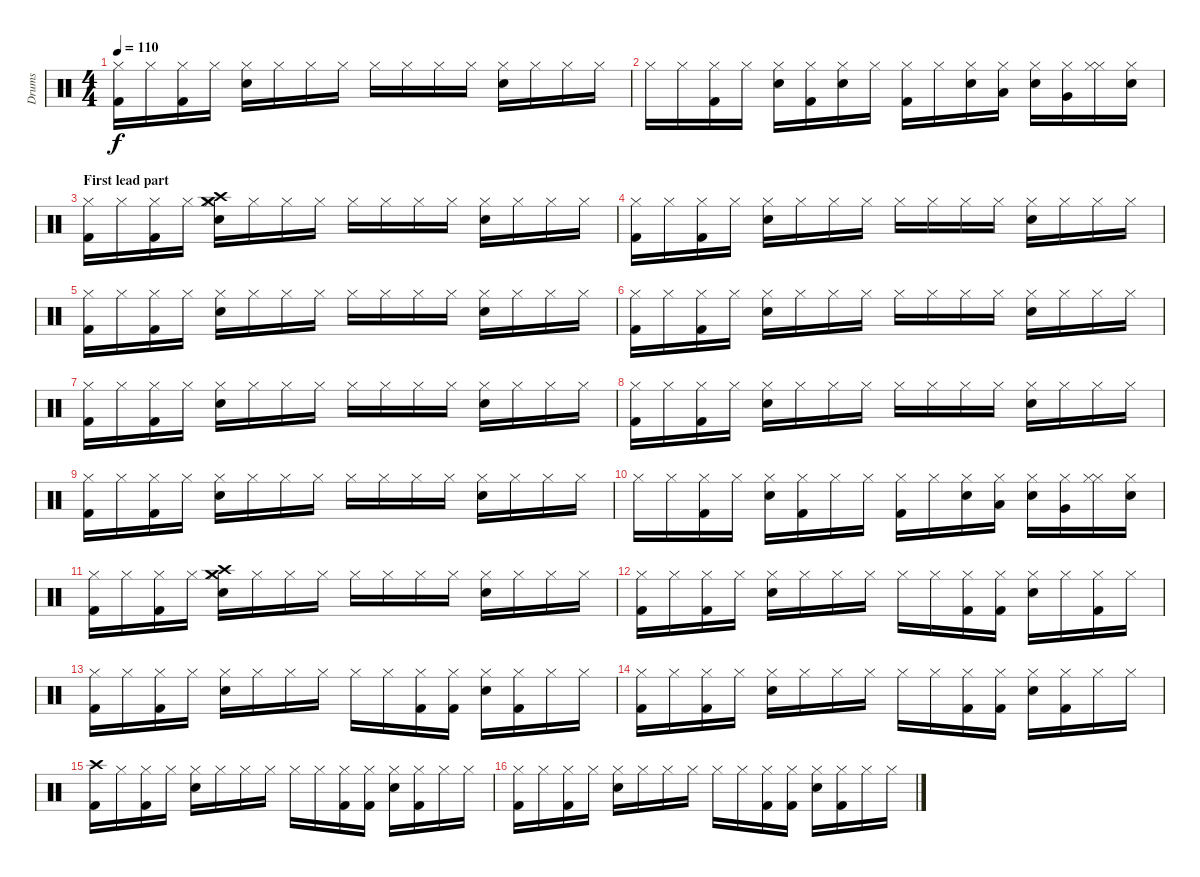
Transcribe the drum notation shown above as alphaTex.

\track ("Drums" "Drums") {instrument percussion}
\staff {score}
\articulation defaults
\ts (4 4)
\tempo 110
\clef neutral
\ks c
("Hi-Hat (closed)" "Kick (hit) 2").16{dy f} "Hi-Hat (closed)".16 ("Hi-Hat (closed)" "Kick (hit) 2").16 "Hi-Hat (closed)".16 ("Hi-Hat (closed)" "Snare (hit) 2").16 "Hi-Hat (closed)".16 "Hi-Hat (closed)".16 "Hi-Hat (closed)".16 "Hi-Hat (closed)".16 "Hi-Hat (closed)".16 "Hi-Hat (closed)".16 "Hi-Hat (closed)".16 ("Hi-Hat (closed)" "Snare (hit) 2").16 "Hi-Hat (closed)".16 "Hi-Hat (closed)".16 "Hi-Hat (closed)".16 |
"Hi-Hat (closed)".16 "Hi-Hat (closed)".16 ("Hi-Hat (closed)" "Kick (hit) 2").16 "Hi-Hat (closed)".16 ("Hi-Hat (closed)" "Snare (hit) 2").16 ("Hi-Hat (closed)" "Kick (hit) 2").16 ("Hi-Hat (closed)" "Snare (hit) 2").16 "Hi-Hat (closed)".16 ("Hi-Hat (closed)" "Kick (hit) 2").16 "Hi-Hat (closed)".16 ("Hi-Hat (closed)" "Snare (hit) 2").16 ("Hi-Hat (closed)" "Low Tom (hit)").16 ("Hi-Hat (closed)" "Snare (hit) 2").16 ("Hi-Hat (closed)" "Very Low Tom (hit)").16 ("Hi-Hat (closed)" "Hi-Hat (closed)").16 ("Hi-Hat (closed)" "Snare (hit) 2").16 |
\section ("" "First lead part")
("Hi-Hat (closed)" "Kick (hit) 2").16 "Hi-Hat (closed)".16 ("Hi-Hat (closed)" "Kick (hit) 2").16 "Hi-Hat (closed)".16 ("Hi-Hat (closed)" "Crash medium (hit)" "Crash high (hit)" "Snare (hit) 2").16 "Hi-Hat (closed)".16 "Hi-Hat (closed)".16 "Hi-Hat (closed)".16 "Hi-Hat (closed)".16 "Hi-Hat (closed)".16 "Hi-Hat (closed)".16 "Hi-Hat (closed)".16 ("Hi-Hat (closed)" "Snare (hit) 2").16 "Hi-Hat (closed)".16 "Hi-Hat (closed)".16 "Hi-Hat (closed)".16 |
("Hi-Hat (closed)" "Kick (hit) 2").16 "Hi-Hat (closed)".16 ("Hi-Hat (closed)" "Kick (hit) 2").16 "Hi-Hat (closed)".16 ("Hi-Hat (closed)" "Snare (hit) 2").16 "Hi-Hat (closed)".16 "Hi-Hat (closed)".16 "Hi-Hat (closed)".16 "Hi-Hat (closed)".16 "Hi-Hat (closed)".16 "Hi-Hat (closed)".16 "Hi-Hat (closed)".16 ("Hi-Hat (closed)" "Snare (hit) 2").16 "Hi-Hat (closed)".16 "Hi-Hat (closed)".16 "Hi-Hat (closed)".16 |
("Hi-Hat (closed)" "Kick (hit) 2").16 "Hi-Hat (closed)".16 ("Hi-Hat (closed)" "Kick (hit) 2").16 "Hi-Hat (closed)".16 ("Hi-Hat (closed)" "Snare (hit) 2").16 "Hi-Hat (closed)".16 "Hi-Hat (closed)".16 "Hi-Hat (closed)".16 "Hi-Hat (closed)".16 "Hi-Hat (closed)".16 "Hi-Hat (closed)".16 "Hi-Hat (closed)".16 ("Hi-Hat (closed)" "Snare (hit) 2").16 "Hi-Hat (closed)".16 "Hi-Hat (closed)".16 "Hi-Hat (closed)".16 |
("Hi-Hat (closed)" "Kick (hit) 2").16 "Hi-Hat (closed)".16 ("Hi-Hat (closed)" "Kick (hit) 2").16 "Hi-Hat (closed)".16 ("Hi-Hat (closed)" "Snare (hit) 2").16 "Hi-Hat (closed)".16 "Hi-Hat (closed)".16 "Hi-Hat (closed)".16 "Hi-Hat (closed)".16 "Hi-Hat (closed)".16 "Hi-Hat (closed)".16 "Hi-Hat (closed)".16 ("Hi-Hat (closed)" "Snare (hit) 2").16 "Hi-Hat (closed)".16 "Hi-Hat (closed)".16 "Hi-Hat (closed)".16 |
("Hi-Hat (closed)" "Kick (hit) 2").16 "Hi-Hat (closed)".16 ("Hi-Hat (closed)" "Kick (hit) 2").16 "Hi-Hat (closed)".16 ("Hi-Hat (closed)" "Snare (hit) 2").16 "Hi-Hat (closed)".16 "Hi-Hat (closed)".16 "Hi-Hat (closed)".16 "Hi-Hat (closed)".16 "Hi-Hat (closed)".16 "Hi-Hat (closed)".16 "Hi-Hat (closed)".16 ("Hi-Hat (closed)" "Snare (hit) 2").16 "Hi-Hat (closed)".16 "Hi-Hat (closed)".16 "Hi-Hat (closed)".16 |
("Hi-Hat (closed)" "Kick (hit) 2").16 "Hi-Hat (closed)".16 ("Hi-Hat (closed)" "Kick (hit) 2").16 "Hi-Hat (closed)".16 ("Hi-Hat (closed)" "Snare (hit) 2").16 "Hi-Hat (closed)".16 "Hi-Hat (closed)".16 "Hi-Hat (closed)".16 "Hi-Hat (closed)".16 "Hi-Hat (closed)".16 "Hi-Hat (closed)".16 "Hi-Hat (closed)".16 ("Hi-Hat (closed)" "Snare (hit) 2").16 "Hi-Hat (closed)".16 "Hi-Hat (closed)".16 "Hi-Hat (closed)".16 |
("Hi-Hat (closed)" "Kick (hit) 2").16 "Hi-Hat (closed)".16 ("Hi-Hat (closed)" "Kick (hit) 2").16 "Hi-Hat (closed)".16 ("Hi-Hat (closed)" "Snare (hit) 2").16 "Hi-Hat (closed)".16 "Hi-Hat (closed)".16 "Hi-Hat (closed)".16 "Hi-Hat (closed)".16 "Hi-Hat (closed)".16 "Hi-Hat (closed)".16 "Hi-Hat (closed)".16 ("Hi-Hat (closed)" "Snare (hit) 2").16 "Hi-Hat (closed)".16 "Hi-Hat (closed)".16 "Hi-Hat (closed)".16 |
"Hi-Hat (closed)".16 "Hi-Hat (closed)".16 ("Hi-Hat (closed)" "Kick (hit) 2").16 "Hi-Hat (closed)".16 ("Hi-Hat (closed)" "Snare (hit) 2").16 ("Hi-Hat (closed)" "Kick (hit) 2").16 "Hi-Hat (closed)".16 "Hi-Hat (closed)".16 ("Hi-Hat (closed)" "Kick (hit) 2").16 "Hi-Hat (closed)".16 ("Hi-Hat (closed)" "Snare (hit) 2").16 ("Hi-Hat (closed)" "Low Tom (hit)").16 ("Hi-Hat (closed)" "Snare (hit) 2").16 ("Hi-Hat (closed)" "Very Low Tom (hit)").16 ("Hi-Hat (closed)" "Hi-Hat (closed)").16 ("Hi-Hat (closed)" "Snare (hit) 2").16 |
("Hi-Hat (closed)" "Kick (hit) 2").16 "Hi-Hat (closed)".16 ("Hi-Hat (closed)" "Kick (hit) 2").16 "Hi-Hat (closed)".16 ("Hi-Hat (closed)" "Crash medium (hit)" "Crash high (hit)" "Snare (hit) 2").16 "Hi-Hat (closed)".16 "Hi-Hat (closed)".16 "Hi-Hat (closed)".16 "Hi-Hat (closed)".16 "Hi-Hat (closed)".16 "Hi-Hat (closed)".16 "Hi-Hat (closed)".16 ("Hi-Hat (closed)" "Snare (hit) 2").16 "Hi-Hat (closed)".16 "Hi-Hat (closed)".16 "Hi-Hat (closed)".16 |
("Hi-Hat (closed)" "Kick (hit) 2").16 "Hi-Hat (closed)".16 ("Hi-Hat (closed)" "Kick (hit) 2").16 "Hi-Hat (closed)".16 ("Hi-Hat (closed)" "Snare (hit) 2").16 "Hi-Hat (closed)".16 "Hi-Hat (closed)".16 "Hi-Hat (closed)".16 "Hi-Hat (closed)".16 "Hi-Hat (closed)".16 ("Hi-Hat (closed)" "Kick (hit) 2").16 ("Hi-Hat (closed)" "Kick (hit) 2").16 ("Hi-Hat (closed)" "Snare (hit) 2").16 "Hi-Hat (closed)".16 ("Hi-Hat (closed)" "Kick (hit) 2").16 "Hi-Hat (closed)".16 |
("Hi-Hat (closed)" "Kick (hit) 2").16 "Hi-Hat (closed)".16 ("Hi-Hat (closed)" "Kick (hit) 2").16 "Hi-Hat (closed)".16 ("Hi-Hat (closed)" "Snare (hit) 2").16 "Hi-Hat (closed)".16 "Hi-Hat (closed)".16 "Hi-Hat (closed)".16 "Hi-Hat (closed)".16 "Hi-Hat (closed)".16 ("Hi-Hat (closed)" "Kick (hit) 2").16 ("Hi-Hat (closed)" "Kick (hit) 2").16 ("Hi-Hat (closed)" "Snare (hit) 2").16 ("Hi-Hat (closed)" "Kick (hit) 2").16 "Hi-Hat (closed)".16 "Hi-Hat (closed)".16 |
("Hi-Hat (closed)" "Kick (hit) 2").16 "Hi-Hat (closed)".16 ("Hi-Hat (closed)" "Kick (hit) 2").16 "Hi-Hat (closed)".16 ("Hi-Hat (closed)" "Snare (hit) 2").16 "Hi-Hat (closed)".16 "Hi-Hat (closed)".16 "Hi-Hat (closed)".16 "Hi-Hat (closed)".16 "Hi-Hat (closed)".16 ("Hi-Hat (closed)" "Kick (hit) 2").16 ("Hi-Hat (closed)" "Kick (hit) 2").16 ("Hi-Hat (closed)" "Snare (hit) 2").16 ("Hi-Hat (closed)" "Kick (hit) 2").16 "Hi-Hat (closed)".16 "Hi-Hat (closed)".16 |
("Crash high (hit)" "Kick (hit) 2").16 "Hi-Hat (closed)".16 ("Hi-Hat (closed)" "Kick (hit) 2").16 "Hi-Hat (closed)".16 ("Hi-Hat (closed)" "Snare (hit) 2").16 "Hi-Hat (closed)".16 "Hi-Hat (closed)".16 "Hi-Hat (closed)".16 "Hi-Hat (closed)".16 "Hi-Hat (closed)".16 ("Hi-Hat (closed)" "Kick (hit) 2").16 ("Hi-Hat (closed)" "Kick (hit) 2").16 ("Hi-Hat (closed)" "Snare (hit) 2").16 ("Hi-Hat (closed)" "Kick (hit) 2").16 "Hi-Hat (closed)".16 "Hi-Hat (closed)".16 |
("Hi-Hat (closed)" "Kick (hit) 2").16 "Hi-Hat (closed)".16 ("Hi-Hat (closed)" "Kick (hit) 2").16 "Hi-Hat (closed)".16 ("Hi-Hat (closed)" "Snare (hit) 2").16 "Hi-Hat (closed)".16 "Hi-Hat (closed)".16 "Hi-Hat (closed)".16 "Hi-Hat (closed)".16 "Hi-Hat (closed)".16 ("Hi-Hat (closed)" "Kick (hit) 2").16 ("Hi-Hat (closed)" "Kick (hit) 2").16 ("Hi-Hat (closed)" "Snare (hit) 2").16 ("Hi-Hat (closed)" "Kick (hit) 2").16 "Hi-Hat (closed)".16 "Hi-Hat (closed)".16
